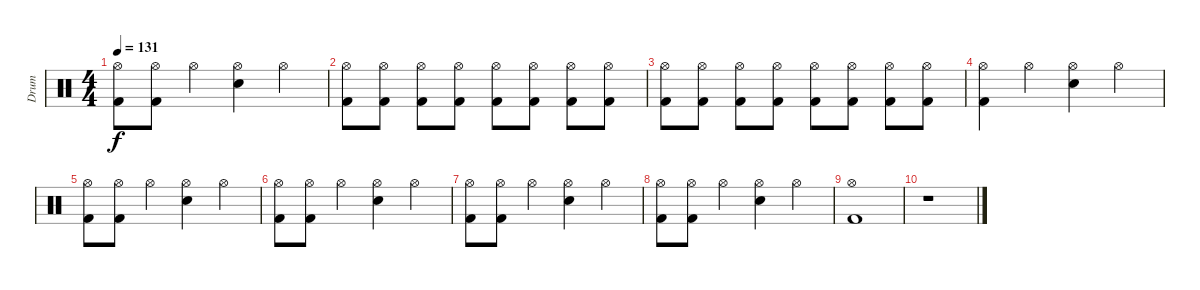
\track ("Drum" "Drum") {instrument percussion}
\staff {score}
\articulation defaults
\ts (4 4)
\tempo 131
\clef neutral
\ks c
("Hi-Hat (open)" "Kick (hit) 2").8{dy f} ("Hi-Hat (open)" "Kick (hit) 2").8 "Hi-Hat (open)".4 ("Hi-Hat (open)" "Snare (hit) 2").4 "Hi-Hat (open)".4 |
("Hi-Hat (open)" "Kick (hit) 2").8 ("Hi-Hat (open)" "Kick (hit) 2").8 ("Hi-Hat (open)" "Kick (hit) 2").8 ("Hi-Hat (open)" "Kick (hit) 2").8 ("Hi-Hat (open)" "Kick (hit) 2").8 ("Hi-Hat (open)" "Kick (hit) 2").8 ("Hi-Hat (open)" "Kick (hit) 2").8 ("Hi-Hat (open)" "Kick (hit) 2").8 |
("Hi-Hat (open)" "Kick (hit) 2").8 ("Hi-Hat (open)" "Kick (hit) 2").8 ("Hi-Hat (open)" "Kick (hit) 2").8 ("Hi-Hat (open)" "Kick (hit) 2").8 ("Hi-Hat (open)" "Kick (hit) 2").8 ("Hi-Hat (open)" "Kick (hit) 2").8 ("Hi-Hat (open)" "Kick (hit) 2").8 ("Hi-Hat (open)" "Kick (hit) 2").8 |
("Hi-Hat (open)" "Kick (hit) 2").4 "Hi-Hat (open)".4 ("Hi-Hat (open)" "Snare (hit) 2").4 "Hi-Hat (open)".4 |
("Hi-Hat (open)" "Kick (hit) 2").8 ("Hi-Hat (open)" "Kick (hit) 2").8 "Hi-Hat (open)".4 ("Hi-Hat (open)" "Snare (hit) 2").4 "Hi-Hat (open)".4 |
("Hi-Hat (open)" "Kick (hit) 2").8 ("Hi-Hat (open)" "Kick (hit) 2").8 "Hi-Hat (open)".4 ("Hi-Hat (open)" "Snare (hit) 2").4 "Hi-Hat (open)".4 |
("Hi-Hat (open)" "Kick (hit) 2").8 ("Hi-Hat (open)" "Kick (hit) 2").8 "Hi-Hat (open)".4 ("Hi-Hat (open)" "Snare (hit) 2").4 "Hi-Hat (open)".4 |
("Hi-Hat (open)" "Kick (hit) 2").8 ("Hi-Hat (open)" "Kick (hit) 2").8 "Hi-Hat (open)".4 ("Hi-Hat (open)" "Snare (hit) 2").4 "Hi-Hat (open)".4 |
("Hi-Hat (open)" "Kick (hit) 2").1 |
r.1
